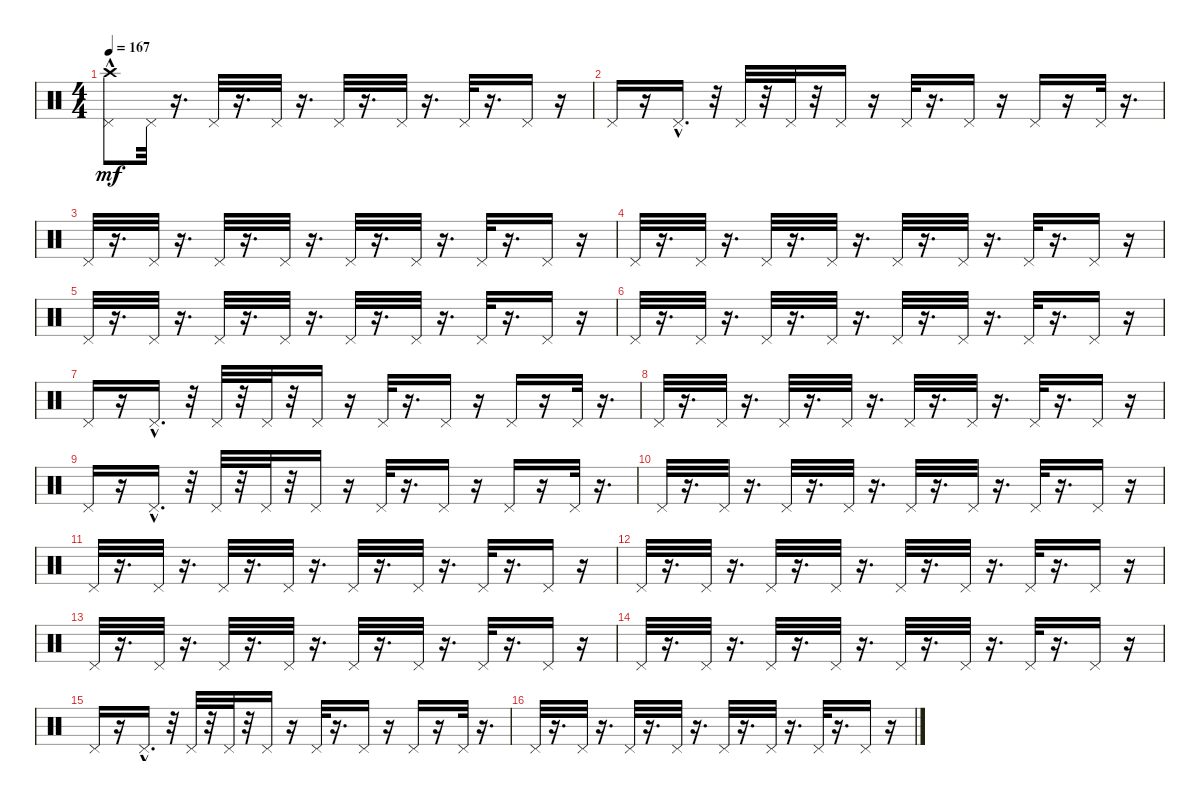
\track "" {instrument percussion}
\staff {score}
\articulation defaults
\ts (4 4)
\tempo 167
\clef neutral
\ks c
("Crash high (hit)"{hac} "Pedal Hi-Hat (hit)").8{dy mf} "Pedal Hi-Hat (hit)".32 r.16{d} "Pedal Hi-Hat (hit)".32 r.16{d} "Pedal Hi-Hat (hit)".32 r.16{d} "Pedal Hi-Hat (hit)".32 r.16{d} "Pedal Hi-Hat (hit)".32 r.16{d} "Pedal Hi-Hat (hit)".32 r.16{d} "Pedal Hi-Hat (hit)".16 r.16 |
"Pedal Hi-Hat (hit)".16 r.16 "Pedal Hi-Hat (hit)"{hac}.16{d} r.32 "Pedal Hi-Hat (hit)".32 r.32 "Pedal Hi-Hat (hit)".32 r.32 "Pedal Hi-Hat (hit)".16 r.16 "Pedal Hi-Hat (hit)".32 r.16{d} "Pedal Hi-Hat (hit)".16 r.16 "Pedal Hi-Hat (hit)".16 r.16 "Pedal Hi-Hat (hit)".32 r.16{d} |
"Pedal Hi-Hat (hit)".32 r.16{d} "Pedal Hi-Hat (hit)".32 r.16{d} "Pedal Hi-Hat (hit)".32 r.16{d} "Pedal Hi-Hat (hit)".32 r.16{d} "Pedal Hi-Hat (hit)".32 r.16{d} "Pedal Hi-Hat (hit)".32 r.16{d} "Pedal Hi-Hat (hit)".32 r.16{d} "Pedal Hi-Hat (hit)".16 r.16 |
"Pedal Hi-Hat (hit)".32 r.16{d} "Pedal Hi-Hat (hit)".32 r.16{d} "Pedal Hi-Hat (hit)".32 r.16{d} "Pedal Hi-Hat (hit)".32 r.16{d} "Pedal Hi-Hat (hit)".32 r.16{d} "Pedal Hi-Hat (hit)".32 r.16{d} "Pedal Hi-Hat (hit)".32 r.16{d} "Pedal Hi-Hat (hit)".16 r.16 |
"Pedal Hi-Hat (hit)".32 r.16{d} "Pedal Hi-Hat (hit)".32 r.16{d} "Pedal Hi-Hat (hit)".32 r.16{d} "Pedal Hi-Hat (hit)".32 r.16{d} "Pedal Hi-Hat (hit)".32 r.16{d} "Pedal Hi-Hat (hit)".32 r.16{d} "Pedal Hi-Hat (hit)".32 r.16{d} "Pedal Hi-Hat (hit)".16 r.16 |
"Pedal Hi-Hat (hit)".32 r.16{d} "Pedal Hi-Hat (hit)".32 r.16{d} "Pedal Hi-Hat (hit)".32 r.16{d} "Pedal Hi-Hat (hit)".32 r.16{d} "Pedal Hi-Hat (hit)".32 r.16{d} "Pedal Hi-Hat (hit)".32 r.16{d} "Pedal Hi-Hat (hit)".32 r.16{d} "Pedal Hi-Hat (hit)".16 r.16 |
"Pedal Hi-Hat (hit)".16 r.16 "Pedal Hi-Hat (hit)"{hac}.16{d} r.32 "Pedal Hi-Hat (hit)".32 r.32 "Pedal Hi-Hat (hit)".32 r.32 "Pedal Hi-Hat (hit)".16 r.16 "Pedal Hi-Hat (hit)".32 r.16{d} "Pedal Hi-Hat (hit)".16 r.16 "Pedal Hi-Hat (hit)".16 r.16 "Pedal Hi-Hat (hit)".32 r.16{d} |
"Pedal Hi-Hat (hit)".32 r.16{d} "Pedal Hi-Hat (hit)".32 r.16{d} "Pedal Hi-Hat (hit)".32 r.16{d} "Pedal Hi-Hat (hit)".32 r.16{d} "Pedal Hi-Hat (hit)".32 r.16{d} "Pedal Hi-Hat (hit)".32 r.16{d} "Pedal Hi-Hat (hit)".32 r.16{d} "Pedal Hi-Hat (hit)".16 r.16 |
"Pedal Hi-Hat (hit)".16 r.16 "Pedal Hi-Hat (hit)"{hac}.16{d} r.32 "Pedal Hi-Hat (hit)".32 r.32 "Pedal Hi-Hat (hit)".32 r.32 "Pedal Hi-Hat (hit)".16 r.16 "Pedal Hi-Hat (hit)".32 r.16{d} "Pedal Hi-Hat (hit)".16 r.16 "Pedal Hi-Hat (hit)".16 r.16 "Pedal Hi-Hat (hit)".32 r.16{d} |
"Pedal Hi-Hat (hit)".32 r.16{d} "Pedal Hi-Hat (hit)".32 r.16{d} "Pedal Hi-Hat (hit)".32 r.16{d} "Pedal Hi-Hat (hit)".32 r.16{d} "Pedal Hi-Hat (hit)".32 r.16{d} "Pedal Hi-Hat (hit)".32 r.16{d} "Pedal Hi-Hat (hit)".32 r.16{d} "Pedal Hi-Hat (hit)".16 r.16 |
"Pedal Hi-Hat (hit)".32 r.16{d} "Pedal Hi-Hat (hit)".32 r.16{d} "Pedal Hi-Hat (hit)".32 r.16{d} "Pedal Hi-Hat (hit)".32 r.16{d} "Pedal Hi-Hat (hit)".32 r.16{d} "Pedal Hi-Hat (hit)".32 r.16{d} "Pedal Hi-Hat (hit)".32 r.16{d} "Pedal Hi-Hat (hit)".16 r.16 |
"Pedal Hi-Hat (hit)".32 r.16{d} "Pedal Hi-Hat (hit)".32 r.16{d} "Pedal Hi-Hat (hit)".32 r.16{d} "Pedal Hi-Hat (hit)".32 r.16{d} "Pedal Hi-Hat (hit)".32 r.16{d} "Pedal Hi-Hat (hit)".32 r.16{d} "Pedal Hi-Hat (hit)".32 r.16{d} "Pedal Hi-Hat (hit)".16 r.16 |
"Pedal Hi-Hat (hit)".32 r.16{d} "Pedal Hi-Hat (hit)".32 r.16{d} "Pedal Hi-Hat (hit)".32 r.16{d} "Pedal Hi-Hat (hit)".32 r.16{d} "Pedal Hi-Hat (hit)".32 r.16{d} "Pedal Hi-Hat (hit)".32 r.16{d} "Pedal Hi-Hat (hit)".32 r.16{d} "Pedal Hi-Hat (hit)".16 r.16 |
"Pedal Hi-Hat (hit)".32 r.16{d} "Pedal Hi-Hat (hit)".32 r.16{d} "Pedal Hi-Hat (hit)".32 r.16{d} "Pedal Hi-Hat (hit)".32 r.16{d} "Pedal Hi-Hat (hit)".32 r.16{d} "Pedal Hi-Hat (hit)".32 r.16{d} "Pedal Hi-Hat (hit)".32 r.16{d} "Pedal Hi-Hat (hit)".16 r.16 |
"Pedal Hi-Hat (hit)".16 r.16 "Pedal Hi-Hat (hit)"{hac}.16{d} r.32 "Pedal Hi-Hat (hit)".32 r.32 "Pedal Hi-Hat (hit)".32 r.32 "Pedal Hi-Hat (hit)".16 r.16 "Pedal Hi-Hat (hit)".32 r.16{d} "Pedal Hi-Hat (hit)".16 r.16 "Pedal Hi-Hat (hit)".16 r.16 "Pedal Hi-Hat (hit)".32 r.16{d} |
"Pedal Hi-Hat (hit)".32 r.16{d} "Pedal Hi-Hat (hit)".32 r.16{d} "Pedal Hi-Hat (hit)".32 r.16{d} "Pedal Hi-Hat (hit)".32 r.16{d} "Pedal Hi-Hat (hit)".32 r.16{d} "Pedal Hi-Hat (hit)".32 r.16{d} "Pedal Hi-Hat (hit)".32 r.16{d} "Pedal Hi-Hat (hit)".16 r.16
